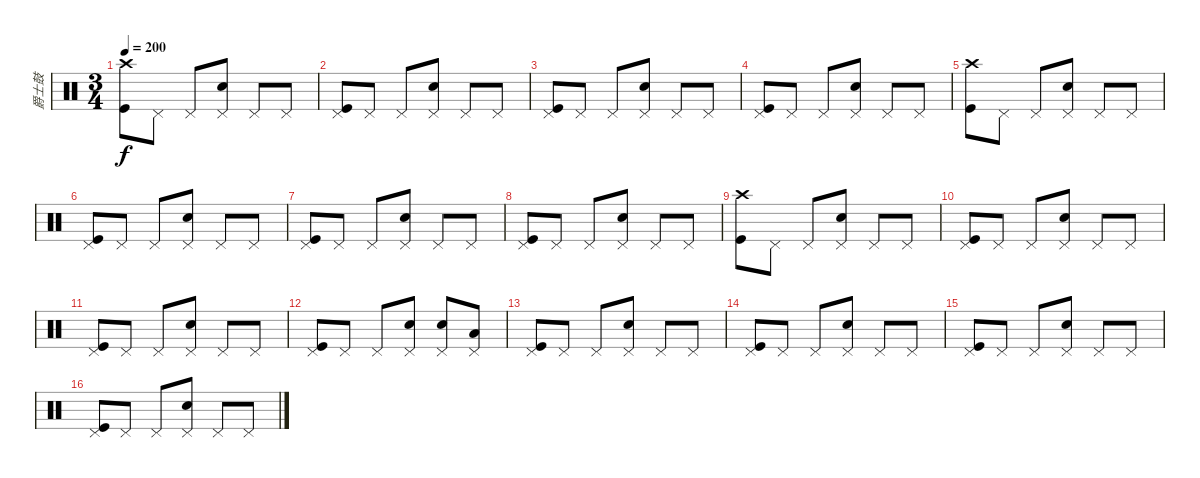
\track ("爵士鼓" "爵士鼓") {instrument percussion}
\staff {score}
\articulation defaults
\ts (3 4)
\tempo 200
\clef neutral
\ks c
("Crash high (hit)" "Kick (hit)").8{dy f} "Pedal Hi-Hat (hit)".8 "Pedal Hi-Hat (hit)".8 ("Pedal Hi-Hat (hit)" "Electric Snare (hit)").8 "Pedal Hi-Hat (hit)".8 "Pedal Hi-Hat (hit)".8 |
("Pedal Hi-Hat (hit)" "Kick (hit)").8 "Pedal Hi-Hat (hit)".8 "Pedal Hi-Hat (hit)".8 ("Pedal Hi-Hat (hit)" "Electric Snare (hit)").8 "Pedal Hi-Hat (hit)".8 "Pedal Hi-Hat (hit)".8 |
("Pedal Hi-Hat (hit)" "Kick (hit)").8 "Pedal Hi-Hat (hit)".8 "Pedal Hi-Hat (hit)".8 ("Pedal Hi-Hat (hit)" "Electric Snare (hit)").8 "Pedal Hi-Hat (hit)".8 "Pedal Hi-Hat (hit)".8 |
("Pedal Hi-Hat (hit)" "Kick (hit)").8 "Pedal Hi-Hat (hit)".8 "Pedal Hi-Hat (hit)".8 ("Pedal Hi-Hat (hit)" "Electric Snare (hit)").8 "Pedal Hi-Hat (hit)".8 "Pedal Hi-Hat (hit)".8 |
("Crash high (hit)" "Kick (hit)").8 "Pedal Hi-Hat (hit)".8 "Pedal Hi-Hat (hit)".8 ("Pedal Hi-Hat (hit)" "Electric Snare (hit)").8 "Pedal Hi-Hat (hit)".8 "Pedal Hi-Hat (hit)".8 |
("Pedal Hi-Hat (hit)" "Kick (hit)").8 "Pedal Hi-Hat (hit)".8 "Pedal Hi-Hat (hit)".8 ("Pedal Hi-Hat (hit)" "Electric Snare (hit)").8 "Pedal Hi-Hat (hit)".8 "Pedal Hi-Hat (hit)".8 |
("Pedal Hi-Hat (hit)" "Kick (hit)").8 "Pedal Hi-Hat (hit)".8 "Pedal Hi-Hat (hit)".8 ("Pedal Hi-Hat (hit)" "Electric Snare (hit)").8 "Pedal Hi-Hat (hit)".8 "Pedal Hi-Hat (hit)".8 |
("Pedal Hi-Hat (hit)" "Kick (hit)").8 "Pedal Hi-Hat (hit)".8 "Pedal Hi-Hat (hit)".8 ("Pedal Hi-Hat (hit)" "Electric Snare (hit)").8 "Pedal Hi-Hat (hit)".8 "Pedal Hi-Hat (hit)".8 |
("Crash high (hit)" "Kick (hit)").8 "Pedal Hi-Hat (hit)".8 "Pedal Hi-Hat (hit)".8 ("Pedal Hi-Hat (hit)" "Electric Snare (hit)").8 "Pedal Hi-Hat (hit)".8 "Pedal Hi-Hat (hit)".8 |
("Pedal Hi-Hat (hit)" "Kick (hit)").8 "Pedal Hi-Hat (hit)".8 "Pedal Hi-Hat (hit)".8 ("Pedal Hi-Hat (hit)" "Electric Snare (hit)").8 "Pedal Hi-Hat (hit)".8 "Pedal Hi-Hat (hit)".8 |
("Pedal Hi-Hat (hit)" "Kick (hit)").8 "Pedal Hi-Hat (hit)".8 "Pedal Hi-Hat (hit)".8 ("Pedal Hi-Hat (hit)" "Electric Snare (hit)").8 "Pedal Hi-Hat (hit)".8 "Pedal Hi-Hat (hit)".8 |
("Pedal Hi-Hat (hit)" "Kick (hit)").8 "Pedal Hi-Hat (hit)".8 "Pedal Hi-Hat (hit)".8 ("Pedal Hi-Hat (hit)" "Electric Snare (hit)").8 ("Pedal Hi-Hat (hit)" "Electric Snare (hit)").8 ("Pedal Hi-Hat (hit)" "Low Floor Tom (hit)").8 |
("Pedal Hi-Hat (hit)" "Kick (hit)").8 "Pedal Hi-Hat (hit)".8 "Pedal Hi-Hat (hit)".8 ("Pedal Hi-Hat (hit)" "Electric Snare (hit)").8 "Pedal Hi-Hat (hit)".8 "Pedal Hi-Hat (hit)".8 |
("Pedal Hi-Hat (hit)" "Kick (hit)").8 "Pedal Hi-Hat (hit)".8 "Pedal Hi-Hat (hit)".8 ("Pedal Hi-Hat (hit)" "Electric Snare (hit)").8 "Pedal Hi-Hat (hit)".8 "Pedal Hi-Hat (hit)".8 |
("Pedal Hi-Hat (hit)" "Kick (hit)").8 "Pedal Hi-Hat (hit)".8 "Pedal Hi-Hat (hit)".8 ("Pedal Hi-Hat (hit)" "Electric Snare (hit)").8 "Pedal Hi-Hat (hit)".8 "Pedal Hi-Hat (hit)".8 |
("Pedal Hi-Hat (hit)" "Kick (hit)").8 "Pedal Hi-Hat (hit)".8 "Pedal Hi-Hat (hit)".8 ("Pedal Hi-Hat (hit)" "Electric Snare (hit)").8 "Pedal Hi-Hat (hit)".8 "Pedal Hi-Hat (hit)".8
